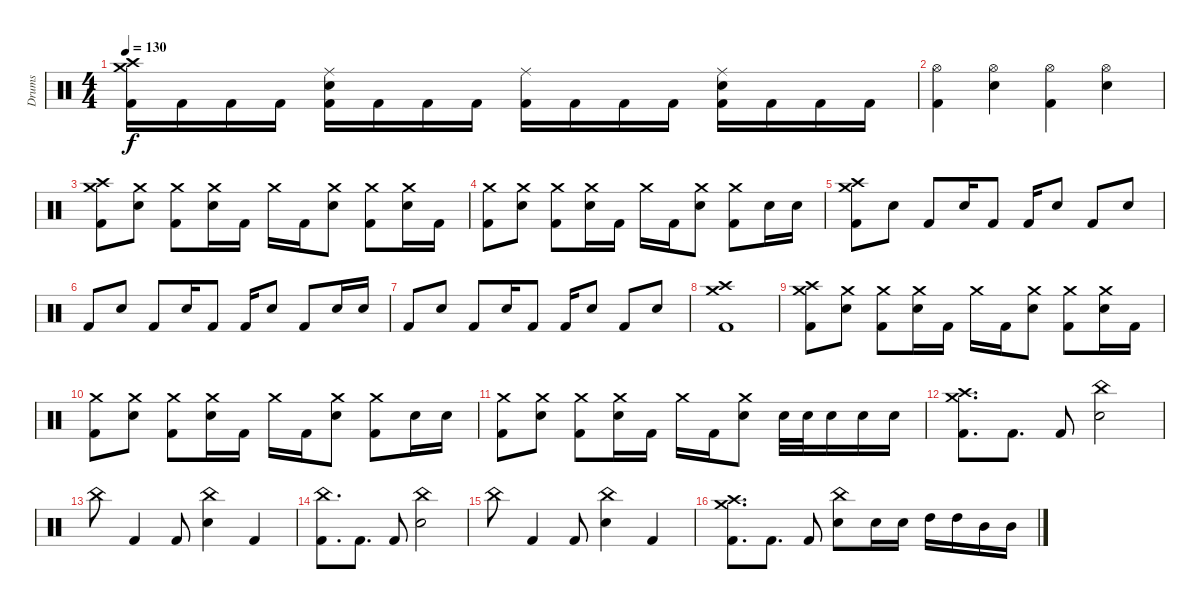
\track ("Drums" "Drums") {instrument percussion}
\staff {score}
\articulation defaults
\ts (4 4)
\tempo 130
\clef neutral
\ks c
("Kick (hit) 2" "Crash high (hit)" "Crash medium (hit)").16{dy f} "Kick (hit) 2".16 "Kick (hit) 2".16 "Kick (hit) 2".16 ("Kick (hit) 2" "Snare (hit) 2" "Ride (middle)").16 "Kick (hit) 2".16 "Kick (hit) 2".16 "Kick (hit) 2".16 ("Kick (hit) 2" "Ride (middle)").16 "Kick (hit) 2".16 "Kick (hit) 2".16 "Kick (hit) 2".16 ("Kick (hit) 2" "Snare (hit) 2" "Ride (middle)").16 "Kick (hit) 2".16 "Kick (hit) 2".16 "Kick (hit) 2".16 |
("Kick (hit) 2" "Hi-Hat (open)").4 ("Snare (hit) 2" "Hi-Hat (open)").4 ("Kick (hit) 2" "Hi-Hat (open)").4 ("Snare (hit) 2" "Hi-Hat (open)").4 |
("Kick (hit) 2" "Crash high (hit)" "Crash medium (hit)").8 ("Snare (hit) 2" "Crash medium (hit)").8 ("Kick (hit) 2" "Crash medium (hit)").8 ("Snare (hit) 2" "Crash medium (hit)").16 "Kick (hit) 2".16 "Crash medium (hit)".16 "Kick (hit) 2".16 ("Snare (hit) 2" "Crash medium (hit)").8 ("Kick (hit) 2" "Crash medium (hit)").8 ("Snare (hit) 2" "Crash medium (hit)").16 "Kick (hit) 2".16 |
("Kick (hit) 2" "Crash medium (hit)").8 ("Snare (hit) 2" "Crash medium (hit)").8 ("Kick (hit) 2" "Crash medium (hit)").8 ("Snare (hit) 2" "Crash medium (hit)").16 "Kick (hit) 2".16 "Crash medium (hit)".16 "Kick (hit) 2".16 ("Snare (hit) 2" "Crash medium (hit)").8 ("Kick (hit) 2" "Crash medium (hit)").8 "Snare (hit) 2".16 "Snare (hit) 2".16 |
("Kick (hit) 2" "Crash high (hit)" "Crash medium (hit)").8 "Snare (hit) 2".8 "Kick (hit) 2".8 "Snare (hit) 2".16 "Kick (hit) 2".8 "Kick (hit) 2".16 "Snare (hit) 2".8 "Kick (hit) 2".8 "Snare (hit) 2".8 |
"Kick (hit) 2".8 "Snare (hit) 2".8 "Kick (hit) 2".8 "Snare (hit) 2".16 "Kick (hit) 2".8 "Kick (hit) 2".16 "Snare (hit) 2".8 "Kick (hit) 2".8 "Snare (hit) 2".16 "Snare (hit) 2".16 |
"Kick (hit) 2".8 "Snare (hit) 2".8 "Kick (hit) 2".8 "Snare (hit) 2".16 "Kick (hit) 2".8 "Kick (hit) 2".16 "Snare (hit) 2".8 "Kick (hit) 2".8 "Snare (hit) 2".8 |
("Kick (hit) 2" "Crash high (hit)" "Crash medium (hit)").1 |
("Kick (hit) 2" "Crash high (hit)" "Crash medium (hit)").8 ("Snare (hit) 2" "Crash medium (hit)").8 ("Kick (hit) 2" "Crash medium (hit)").8 ("Snare (hit) 2" "Crash medium (hit)").16 "Kick (hit) 2".16 "Crash medium (hit)".16 "Kick (hit) 2".16 ("Snare (hit) 2" "Crash medium (hit)").8 ("Kick (hit) 2" "Crash medium (hit)").8 ("Snare (hit) 2" "Crash medium (hit)").16 "Kick (hit) 2".16 |
("Kick (hit) 2" "Crash medium (hit)").8 ("Snare (hit) 2" "Crash medium (hit)").8 ("Kick (hit) 2" "Crash medium (hit)").8 ("Snare (hit) 2" "Crash medium (hit)").16 "Kick (hit) 2".16 "Crash medium (hit)".16 "Kick (hit) 2".16 ("Snare (hit) 2" "Crash medium (hit)").8 ("Kick (hit) 2" "Crash medium (hit)").8 "Snare (hit) 2".16 "Snare (hit) 2".16 |
("Kick (hit) 2" "Crash medium (hit)").8 ("Snare (hit) 2" "Crash medium (hit)").8 ("Kick (hit) 2" "Crash medium (hit)").8 ("Snare (hit) 2" "Crash medium (hit)").16 "Kick (hit) 2".16 "Crash medium (hit)".16 "Kick (hit) 2".16 ("Snare (hit) 2" "Crash medium (hit)").8 "Snare (hit) 2".32 "Snare (hit) 2".32 "Snare (hit) 2".16 "Snare (hit) 2".16 "Snare (hit) 2".16 |
("Kick (hit) 2" "Crash high (hit)" "Crash medium (hit)").8{d} "Kick (hit) 2".8{d} "Kick (hit) 2".8 ("Snare (hit) 2" "China (hit)").2 |
"China (hit)".8 "Kick (hit) 2".4 "Kick (hit) 2".8 ("Snare (hit) 2" "China (hit)").4 "Kick (hit) 2".4 |
("Kick (hit) 2" "China (hit)").8{d} "Kick (hit) 2".8{d} "Kick (hit) 2".8 ("Snare (hit) 2" "China (hit)").2 |
"China (hit)".8 "Kick (hit) 2".4 "Kick (hit) 2".8 ("Snare (hit) 2" "China (hit)").4 "Kick (hit) 2".4 |
("Kick (hit) 2" "Crash high (hit)" "Crash medium (hit)").8{d} "Kick (hit) 2".8{d} "Kick (hit) 2".8 ("Snare (hit) 2" "China (hit)").8 "Snare (hit) 2".16 "Snare (hit) 2".16 "High Tom (hit)".16 "High Tom (hit)".16 "Mid Tom (hit)".16 "Mid Tom (hit)".16
